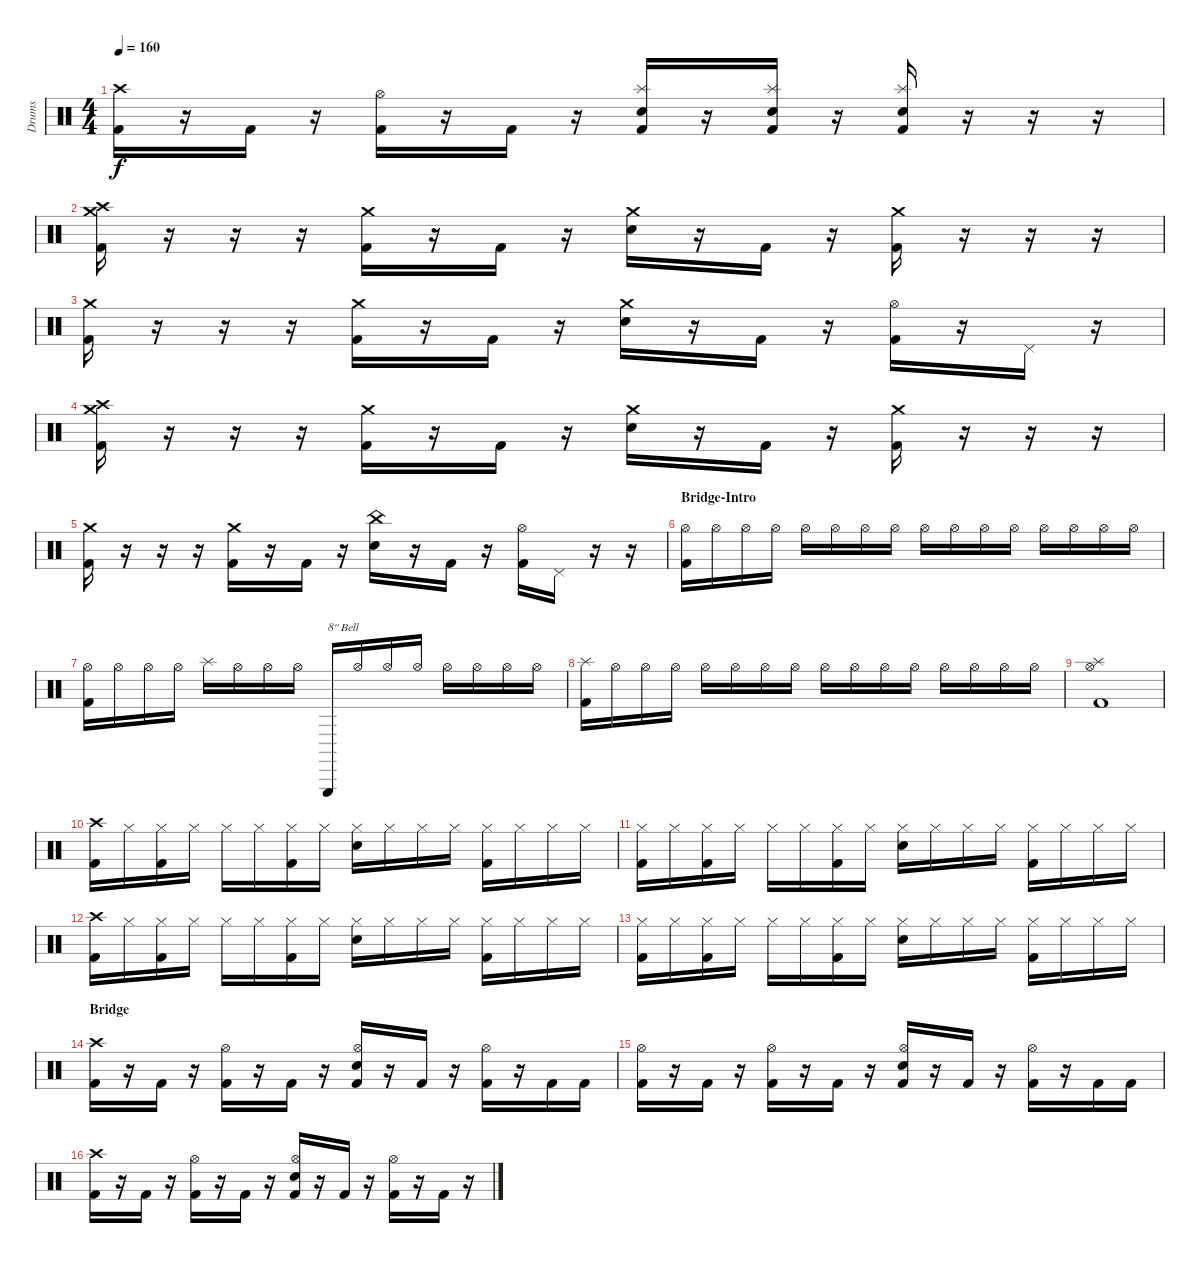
\track ("Drums" "Drums") {instrument percussion}
\staff {score}
\articulation defaults
\ts (4 4)
\tempo 160
\clef neutral
\ks c
("Crash high (hit)" "Kick (hit) 2").16{dy f} r.16 "Kick (hit) 2".16 r.16 ("Hi-Hat (open)" "Kick (hit) 2").16 r.16 "Kick (hit) 2".16 r.16 ("Splash (hit)" "Snare (hit) 2" "Kick (hit) 2").16 r.16 ("Splash (hit)" "Snare (hit) 2" "Kick (hit) 2").16 r.16 ("Splash (hit)" "Snare (hit) 2" "Kick (hit) 2").16 r.16 r.16 r.16 |
("Crash medium (hit)" "Crash high (hit)" "Kick (hit) 2").16 r.16 r.16 r.16 ("Crash medium (hit)" "Kick (hit) 2").16 r.16 "Kick (hit) 2".16 r.16 ("Crash medium (hit)" "Snare (hit) 2").16 r.16 "Kick (hit) 2".16 r.16 ("Crash medium (hit)" "Kick (hit) 2").16 r.16 r.16 r.16 |
("Crash medium (hit)" "Kick (hit) 2").16 r.16 r.16 r.16 ("Crash medium (hit)" "Kick (hit) 2").16 r.16 "Kick (hit) 2".16 r.16 ("Crash medium (hit)" "Snare (hit) 2").16 r.16 "Kick (hit) 2".16 r.16 ("Hi-Hat (open)" "Kick (hit) 2").16 r.16 "Pedal Hi-Hat (hit)".16 r.16 |
("Crash medium (hit)" "Crash high (hit)" "Kick (hit) 2").16 r.16 r.16 r.16 ("Crash medium (hit)" "Kick (hit) 2").16 r.16 "Kick (hit) 2".16 r.16 ("Crash medium (hit)" "Snare (hit) 2").16 r.16 "Kick (hit) 2".16 r.16 ("Crash medium (hit)" "Kick (hit) 2").16 r.16 r.16 r.16 |
("Crash medium (hit)" "Kick (hit) 2").16 r.16 r.16 r.16 ("Crash medium (hit)" "Kick (hit) 2").16 r.16 "Kick (hit) 2".16 r.16 ("China (hit)" "Snare (hit) 2").16 r.16 "Kick (hit) 2".16 r.16 ("Hi-Hat (open)" "Kick (hit) 2").16 "Pedal Hi-Hat (hit)".16 r.16 r.16 |
\section ("" "Bridge-Intro")
("Hi-Hat (open)" "Kick (hit) 2").16 "Hi-Hat (open)".16 "Hi-Hat (open)".16 "Hi-Hat (open)".16 "Hi-Hat (open)".16 "Hi-Hat (open)".16 "Hi-Hat (open)".16 "Hi-Hat (open)".16 "Hi-Hat (open)".16 "Hi-Hat (open)".16 "Hi-Hat (open)".16 "Hi-Hat (open)".16 "Hi-Hat (open)".16 "Hi-Hat (open)".16 "Hi-Hat (open)".16 "Hi-Hat (open)".16 |
("Hi-Hat (open)" "Kick (hit) 2").16 "Hi-Hat (open)".16 "Hi-Hat (open)".16 "Hi-Hat (open)".16 "Splash (hit)".16 "Hi-Hat (open)".16 "Hi-Hat (open)".16 "Hi-Hat (open)".16 "Triangle (hit)".16{txt "8\" Bell"} "Hi-Hat (open)".16 "Hi-Hat (open)".16 "Hi-Hat (open)".16 "Hi-Hat (open)".16 "Hi-Hat (open)".16 "Hi-Hat (open)".16 "Hi-Hat (open)".16 |
("Splash (hit)" "Kick (hit) 2").16 "Hi-Hat (open)".16 "Hi-Hat (open)".16 "Hi-Hat (open)".16 "Hi-Hat (open)".16 "Hi-Hat (open)".16 "Hi-Hat (open)".16 "Hi-Hat (open)".16 "Hi-Hat (open)".16 "Hi-Hat (open)".16 "Hi-Hat (open)".16 "Hi-Hat (open)".16 "Hi-Hat (open)".16 "Hi-Hat (open)".16 "Hi-Hat (open)".16 "Hi-Hat (open)".16 |
("Hi-Hat (open)" "Splash (hit)" "Kick (hit) 2").1 |
("Crash high (hit)" "Kick (hit) 2").16 "Hi-Hat (closed)".16 ("Hi-Hat (closed)" "Kick (hit) 2").16 "Hi-Hat (closed)".16 "Hi-Hat (closed)".16 "Hi-Hat (closed)".16 ("Hi-Hat (closed)" "Kick (hit) 2").16 "Hi-Hat (closed)".16 ("Hi-Hat (closed)" "Snare (hit) 2").16 "Hi-Hat (closed)".16 "Hi-Hat (closed)".16 "Hi-Hat (closed)".16 ("Hi-Hat (closed)" "Kick (hit) 2").16 "Hi-Hat (closed)".16 "Hi-Hat (closed)".16 "Hi-Hat (closed)".16 |
("Hi-Hat (closed)" "Kick (hit) 2").16 "Hi-Hat (closed)".16 ("Hi-Hat (closed)" "Kick (hit) 2").16 "Hi-Hat (closed)".16 "Hi-Hat (closed)".16 "Hi-Hat (closed)".16 ("Hi-Hat (closed)" "Kick (hit) 2").16 "Hi-Hat (closed)".16 ("Hi-Hat (closed)" "Snare (hit) 2").16 "Hi-Hat (closed)".16 "Hi-Hat (closed)".16 "Hi-Hat (closed)".16 ("Hi-Hat (closed)" "Kick (hit) 2").16 "Hi-Hat (closed)".16 "Hi-Hat (closed)".16 "Hi-Hat (closed)".16 |
("Crash high (hit)" "Kick (hit) 2").16 "Hi-Hat (closed)".16 ("Hi-Hat (closed)" "Kick (hit) 2").16 "Hi-Hat (closed)".16 "Hi-Hat (closed)".16 "Hi-Hat (closed)".16 ("Hi-Hat (closed)" "Kick (hit) 2").16 "Hi-Hat (closed)".16 ("Hi-Hat (closed)" "Snare (hit) 2").16 "Hi-Hat (closed)".16 "Hi-Hat (closed)".16 "Hi-Hat (closed)".16 ("Hi-Hat (closed)" "Kick (hit) 2").16 "Hi-Hat (closed)".16 "Hi-Hat (closed)".16 "Hi-Hat (closed)".16 |
("Hi-Hat (closed)" "Kick (hit) 2").16 "Hi-Hat (closed)".16 ("Hi-Hat (closed)" "Kick (hit) 2").16 "Hi-Hat (closed)".16 "Hi-Hat (closed)".16 "Hi-Hat (closed)".16 ("Hi-Hat (closed)" "Kick (hit) 2").16 "Hi-Hat (closed)".16 ("Hi-Hat (closed)" "Snare (hit) 2").16 "Hi-Hat (closed)".16 "Hi-Hat (closed)".16 "Hi-Hat (closed)".16 ("Hi-Hat (closed)" "Kick (hit) 2").16 "Hi-Hat (closed)".16 "Hi-Hat (closed)".16 "Hi-Hat (closed)".16 |
\section ("" "Bridge")
("Crash high (hit)" "Kick (hit) 2").16 r.16 "Kick (hit) 2".16 r.16 ("Hi-Hat (open)" "Kick (hit) 2").16 r.16 "Kick (hit) 2".16 r.16 ("Hi-Hat (open)" "Snare (hit) 2" "Kick (hit) 2").16 r.16 "Kick (hit) 2".16 r.16 ("Hi-Hat (open)" "Kick (hit) 2").16 r.16 "Kick (hit) 2".16 "Kick (hit) 2".16 |
("Hi-Hat (open)" "Kick (hit) 2").16 r.16 "Kick (hit) 2".16 r.16 ("Hi-Hat (open)" "Kick (hit) 2").16 r.16 "Kick (hit) 2".16 r.16 ("Hi-Hat (open)" "Snare (hit) 2" "Kick (hit) 2").16 r.16 "Kick (hit) 2".16 r.16 ("Hi-Hat (open)" "Kick (hit) 2").16 r.16 "Kick (hit) 2".16 "Kick (hit) 2".16 |
("Crash high (hit)" "Kick (hit) 2").16 r.16 "Kick (hit) 2".16 r.16 ("Hi-Hat (open)" "Kick (hit) 2").16 r.16 "Kick (hit) 2".16 r.16 ("Hi-Hat (open)" "Snare (hit) 2" "Kick (hit) 2").16 r.16 "Kick (hit) 2".16 r.16 ("Hi-Hat (open)" "Kick (hit) 2").16 r.16 "Kick (hit) 2".16 r.16
